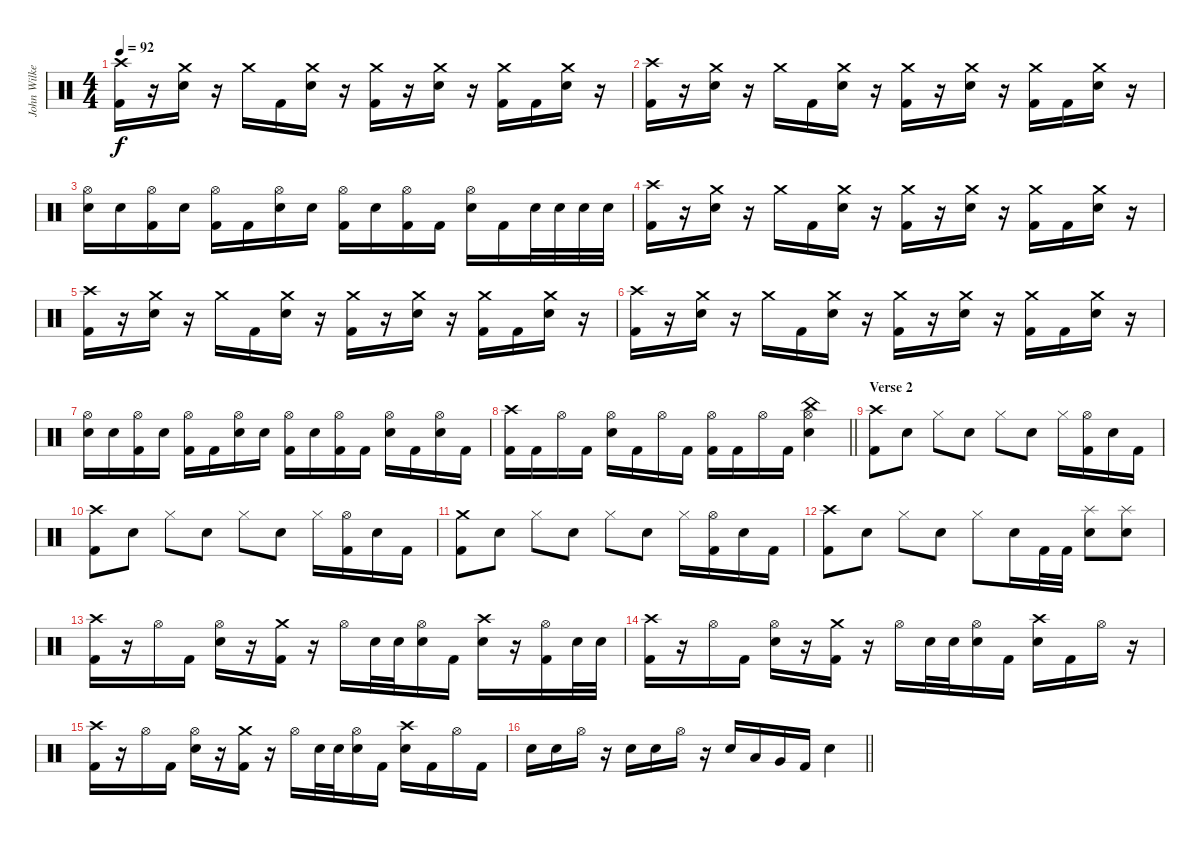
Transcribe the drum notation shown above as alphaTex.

\track ("John Wilkes (Percussion)" "John Wilke") {instrument percussion}
\staff {score}
\articulation defaults
\ts (4 4)
\tempo 92
\clef neutral
\ks c
("Crash high (hit)" "Kick (hit) 2").16{dy f} r.16 ("Crash medium (hit)" "Electric Snare (hit)").16 r.16 "Crash medium (hit)".16 "Kick (hit) 2".16 ("Crash medium (hit)" "Electric Snare (hit)").16 r.16 ("Crash medium (hit)" "Kick (hit) 2").16 r.16 ("Crash medium (hit)" "Electric Snare (hit)").16 r.16 ("Crash medium (hit)" "Kick (hit) 2").16 "Kick (hit) 2".16 ("Crash medium (hit)" "Electric Snare (hit)").16 r.16 |
("Crash high (hit)" "Kick (hit) 2").16 r.16 ("Crash medium (hit)" "Electric Snare (hit)").16 r.16 "Crash medium (hit)".16 "Kick (hit) 2".16 ("Crash medium (hit)" "Electric Snare (hit)").16 r.16 ("Crash medium (hit)" "Kick (hit) 2").16 r.16 ("Crash medium (hit)" "Electric Snare (hit)").16 r.16 ("Crash medium (hit)" "Kick (hit) 2").16 "Kick (hit) 2".16 ("Crash medium (hit)" "Electric Snare (hit)").16 r.16 |
("Hi-Hat (open)" "Electric Snare (hit)").16 "Electric Snare (hit)".16 ("Hi-Hat (open)" "Kick (hit) 2").16 "Electric Snare (hit)".16 ("Hi-Hat (open)" "Kick (hit) 2").16 "Kick (hit) 2".16 ("Hi-Hat (open)" "Electric Snare (hit)").16 "Electric Snare (hit)".16 ("Hi-Hat (open)" "Kick (hit) 2").16 "Electric Snare (hit)".16 ("Hi-Hat (open)" "Kick (hit) 2").16 "Kick (hit) 2".16 ("Hi-Hat (open)" "Electric Snare (hit)").16 "Kick (hit) 2".16 "Electric Snare (hit)".32 "Electric Snare (hit)".32 "Electric Snare (hit)".32 "Electric Snare (hit)".32 |
("Crash high (hit)" "Kick (hit) 2").16 r.16 ("Crash medium (hit)" "Electric Snare (hit)").16 r.16 "Crash medium (hit)".16 "Kick (hit) 2".16 ("Crash medium (hit)" "Electric Snare (hit)").16 r.16 ("Crash medium (hit)" "Kick (hit) 2").16 r.16 ("Crash medium (hit)" "Electric Snare (hit)").16 r.16 ("Crash medium (hit)" "Kick (hit) 2").16 "Kick (hit) 2".16 ("Crash medium (hit)" "Electric Snare (hit)").16 r.16 |
("Crash high (hit)" "Kick (hit) 2").16 r.16 ("Crash medium (hit)" "Electric Snare (hit)").16 r.16 "Crash medium (hit)".16 "Kick (hit) 2".16 ("Crash medium (hit)" "Electric Snare (hit)").16 r.16 ("Crash medium (hit)" "Kick (hit) 2").16 r.16 ("Crash medium (hit)" "Electric Snare (hit)").16 r.16 ("Crash medium (hit)" "Kick (hit) 2").16 "Kick (hit) 2".16 ("Crash medium (hit)" "Electric Snare (hit)").16 r.16 |
("Crash high (hit)" "Kick (hit) 2").16 r.16 ("Crash medium (hit)" "Electric Snare (hit)").16 r.16 "Crash medium (hit)".16 "Kick (hit) 2".16 ("Crash medium (hit)" "Electric Snare (hit)").16 r.16 ("Crash medium (hit)" "Kick (hit) 2").16 r.16 ("Crash medium (hit)" "Electric Snare (hit)").16 r.16 ("Crash medium (hit)" "Kick (hit) 2").16 "Kick (hit) 2".16 ("Crash medium (hit)" "Electric Snare (hit)").16 r.16 |
("Hi-Hat (open)" "Electric Snare (hit)").16 "Electric Snare (hit)".16 ("Hi-Hat (open)" "Kick (hit) 2").16 "Electric Snare (hit)".16 ("Hi-Hat (open)" "Kick (hit) 2").16 "Kick (hit) 2".16 ("Hi-Hat (open)" "Electric Snare (hit)").16 "Electric Snare (hit)".16 ("Hi-Hat (open)" "Kick (hit) 2").16 "Electric Snare (hit)".16 ("Hi-Hat (open)" "Kick (hit) 2").16 "Kick (hit) 2".16 ("Hi-Hat (open)" "Electric Snare (hit)").16 "Kick (hit) 2".16 ("Hi-Hat (open)" "Electric Snare (hit)").16 "Kick (hit) 2".16 |
\barLineRight lightlight
("Crash high (hit)" "Kick (hit) 2").16 "Kick (hit) 2".16 "Hi-Hat (open)".16 "Kick (hit) 2".16 ("Hi-Hat (open)" "Electric Snare (hit)").16 "Kick (hit) 2".16 "Hi-Hat (open)".16 "Kick (hit) 2".16 ("Hi-Hat (open)" "Kick (hit) 2").16 "Kick (hit) 2".16 "Hi-Hat (open)".16 "Kick (hit) 2".16 ("China (hit)" "Hi-Hat (open)" "Electric Snare (hit)").4 |
\section ("" "Verse 2")
("Crash high (hit)" "Kick (hit) 2").8 "Electric Snare (hit)".8 "Hi-Hat (closed)".8 "Electric Snare (hit)".8 "Hi-Hat (closed)".8 "Electric Snare (hit)".8 "Hi-Hat (closed)".16 ("Hi-Hat (open)" "Kick (hit) 2").16 "Electric Snare (hit)".16 "Kick (hit) 2".16 |
("Crash high (hit)" "Kick (hit) 2").8 "Electric Snare (hit)".8 "Hi-Hat (closed)".8 "Electric Snare (hit)".8 "Hi-Hat (closed)".8 "Electric Snare (hit)".8 "Hi-Hat (closed)".16 ("Hi-Hat (open)" "Kick (hit) 2").16 "Electric Snare (hit)".16 "Kick (hit) 2".16 |
("Crash medium (hit)" "Kick (hit) 2").8 "Electric Snare (hit)".8 "Hi-Hat (closed)".8 "Electric Snare (hit)".8 "Hi-Hat (closed)".8 "Electric Snare (hit)".8 "Hi-Hat (closed)".16 ("Hi-Hat (open)" "Kick (hit) 2").16 "Electric Snare (hit)".16 "Kick (hit) 2".16 |
("Crash high (hit)" "Kick (hit) 2").8 "Electric Snare (hit)".8 "Hi-Hat (closed)".8 "Electric Snare (hit)".8 "Hi-Hat (closed)".8 "Electric Snare (hit)".16 "Kick (hit) 2".32 "Kick (hit) 2".32 ("Splash (hit)" "Electric Snare (hit)").8 ("Splash (hit)" "Electric Snare (hit)").8 |
("Crash high (hit)" "Kick (hit) 2").16 r.16 "Hi-Hat (open)".16 "Kick (hit) 2".16 ("Hi-Hat (open)" "Electric Snare (hit)").16 r.16 ("Crash medium (hit)" "Kick (hit) 2").16 r.16 "Hi-Hat (open)".16 "Electric Snare (hit)".32 "Electric Snare (hit)".32 ("Hi-Hat (open)" "Electric Snare (hit)").16 "Kick (hit) 2".16 ("Crash high (hit)" "Electric Snare (hit)").16 r.16 ("Hi-Hat (open)" "Kick (hit) 2").16 "Electric Snare (hit)".32 "Electric Snare (hit)".32 |
("Crash high (hit)" "Kick (hit) 2").16 r.16 "Hi-Hat (open)".16 "Kick (hit) 2".16 ("Hi-Hat (open)" "Electric Snare (hit)").16 r.16 ("Crash medium (hit)" "Kick (hit) 2").16 r.16 "Hi-Hat (open)".16 "Electric Snare (hit)".32 "Electric Snare (hit)".32 ("Hi-Hat (open)" "Electric Snare (hit)").16 "Kick (hit) 2".16 ("Crash high (hit)" "Electric Snare (hit)").16 "Kick (hit) 2".16 "Hi-Hat (open)".16 r.16 |
("Crash high (hit)" "Kick (hit) 2").16 r.16 "Hi-Hat (open)".16 "Kick (hit) 2".16 ("Hi-Hat (open)" "Electric Snare (hit)").16 r.16 ("Crash medium (hit)" "Kick (hit) 2").16 r.16 "Hi-Hat (open)".16 "Electric Snare (hit)".32 "Electric Snare (hit)".32 ("Hi-Hat (open)" "Electric Snare (hit)").16 "Kick (hit) 2".16 ("Crash high (hit)" "Electric Snare (hit)").16 "Kick (hit) 2".16 "Hi-Hat (open)".16 "Kick (hit) 2".16 |
\barLineRight lightlight "Electric Snare (hit)".16 "Electric Snare (hit)".16 "Hi-Hat (open)".16
r.16 "Electric Snare (hit)".16 "Electric Snare (hit)".16 "Hi-Hat (open)".16 r.16 "Electric Snare (hit)".16 "Low Tom (hit)".16 "Very Low Tom (hit)".16 "Kick (hit) 2".16 "Electric Snare (hit)".4
